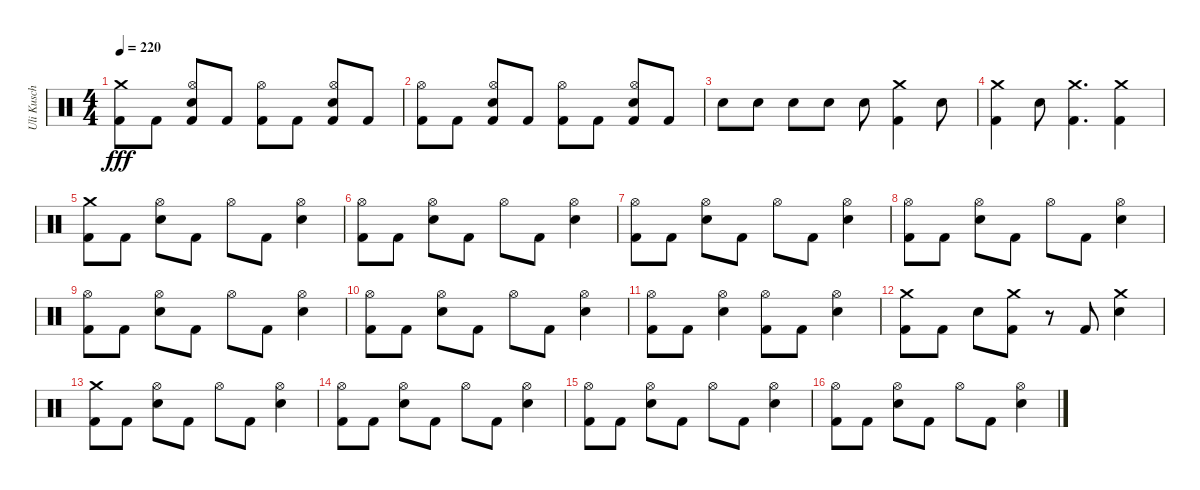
\track ("Uli Kusch" "Uli Kusch") {instrument percussion}
\staff {score}
\articulation defaults
\ts (4 4)
\tempo 220
\clef neutral
\ks c
("Crash medium (hit)" "Kick (hit) 2").8{dy fff} "Kick (hit) 2".8 ("Hi-Hat (open)" "Snare (hit) 2" "Kick (hit) 2").8 "Kick (hit) 2".8 ("Hi-Hat (open)" "Kick (hit) 2").8 "Kick (hit) 2".8 ("Hi-Hat (open)" "Snare (hit) 2" "Kick (hit) 2").8 "Kick (hit) 2".8 |
("Hi-Hat (open)" "Kick (hit) 2").8 "Kick (hit) 2".8 ("Hi-Hat (open)" "Snare (hit) 2" "Kick (hit) 2").8 "Kick (hit) 2".8 ("Hi-Hat (open)" "Kick (hit) 2").8 "Kick (hit) 2".8 ("Hi-Hat (open)" "Snare (hit) 2" "Kick (hit) 2").8 "Kick (hit) 2".8 |
"Snare (hit) 2".8 "Snare (hit) 2".8 "Snare (hit) 2".8 "Snare (hit) 2".8 "Snare (hit) 2".8 ("Crash medium (hit)" "Kick (hit) 2").4 "Snare (hit) 2".8 |
("Crash medium (hit)" "Kick (hit) 2").4 "Snare (hit) 2".8 ("Crash medium (hit)" "Kick (hit) 2").4{d} ("Crash medium (hit)" "Kick (hit) 2").4 |
("Crash medium (hit)" "Kick (hit) 2").8 "Kick (hit) 2".8 ("Hi-Hat (open)" "Snare (hit) 2").8 "Kick (hit) 2".8 "Hi-Hat (open)".8 "Kick (hit) 2".8 ("Hi-Hat (open)" "Snare (hit) 2").4 |
("Hi-Hat (open)" "Kick (hit) 2").8 "Kick (hit) 2".8 ("Hi-Hat (open)" "Snare (hit) 2").8 "Kick (hit) 2".8 "Hi-Hat (open)".8 "Kick (hit) 2".8 ("Hi-Hat (open)" "Snare (hit) 2").4 |
("Hi-Hat (open)" "Kick (hit) 2").8 "Kick (hit) 2".8 ("Hi-Hat (open)" "Snare (hit) 2").8 "Kick (hit) 2".8 "Hi-Hat (open)".8 "Kick (hit) 2".8 ("Hi-Hat (open)" "Snare (hit) 2").4 |
("Hi-Hat (open)" "Kick (hit) 2").8 "Kick (hit) 2".8 ("Hi-Hat (open)" "Snare (hit) 2").8 "Kick (hit) 2".8 "Hi-Hat (open)".8 "Kick (hit) 2".8 ("Hi-Hat (open)" "Snare (hit) 2").4 |
("Hi-Hat (open)" "Kick (hit) 2").8 "Kick (hit) 2".8 ("Hi-Hat (open)" "Snare (hit) 2").8 "Kick (hit) 2".8 "Hi-Hat (open)".8 "Kick (hit) 2".8 ("Hi-Hat (open)" "Snare (hit) 2").4 |
("Hi-Hat (open)" "Kick (hit) 2").8 "Kick (hit) 2".8 ("Hi-Hat (open)" "Snare (hit) 2").8 "Kick (hit) 2".8 "Hi-Hat (open)".8 "Kick (hit) 2".8 ("Hi-Hat (open)" "Snare (hit) 2").4 |
("Hi-Hat (open)" "Kick (hit) 2").8 "Kick (hit) 2".8 ("Hi-Hat (open)" "Snare (hit) 2").4 ("Hi-Hat (open)" "Kick (hit) 2").8 "Kick (hit) 2".8 ("Hi-Hat (open)" "Snare (hit) 2").4 |
("Crash medium (hit)" "Kick (hit) 2").8 "Kick (hit) 2".8 "Snare (hit) 2".8 ("Crash medium (hit)" "Kick (hit) 2").8 r.8 "Kick (hit) 2".8 ("Crash medium (hit)" "Snare (hit) 2").4 |
("Crash medium (hit)" "Kick (hit) 2").8 "Kick (hit) 2".8 ("Hi-Hat (open)" "Snare (hit) 2").8 "Kick (hit) 2".8 "Hi-Hat (open)".8 "Kick (hit) 2".8 ("Hi-Hat (open)" "Snare (hit) 2").4 |
("Hi-Hat (open)" "Kick (hit) 2").8 "Kick (hit) 2".8 ("Hi-Hat (open)" "Snare (hit) 2").8 "Kick (hit) 2".8 "Hi-Hat (open)".8 "Kick (hit) 2".8 ("Hi-Hat (open)" "Snare (hit) 2").4 |
("Hi-Hat (open)" "Kick (hit) 2").8 "Kick (hit) 2".8 ("Hi-Hat (open)" "Snare (hit) 2").8 "Kick (hit) 2".8 "Hi-Hat (open)".8 "Kick (hit) 2".8 ("Hi-Hat (open)" "Snare (hit) 2").4 |
("Hi-Hat (open)" "Kick (hit) 2").8 "Kick (hit) 2".8 ("Hi-Hat (open)" "Snare (hit) 2").8 "Kick (hit) 2".8 "Hi-Hat (open)".8 "Kick (hit) 2".8 ("Hi-Hat (open)" "Snare (hit) 2").4
